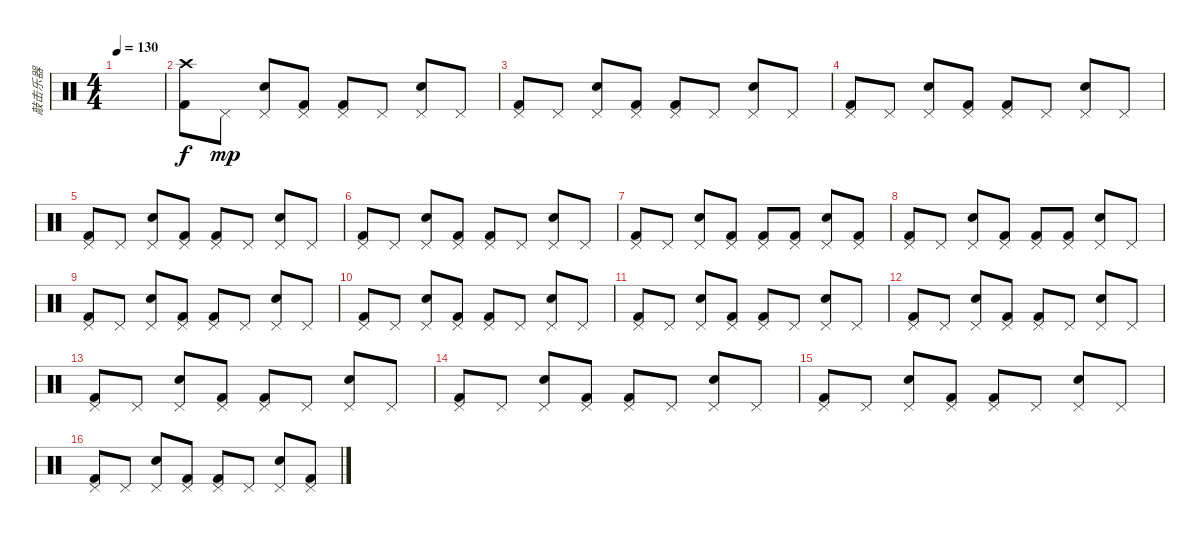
\track ("敲击乐器" "敲击乐器") {instrument percussion}
\staff {score}
\articulation defaults
\ts (4 4)
\tempo 130
\clef neutral
\ks c
|
("Crash high (hit)" "Kick (hit) 2").8 "Pedal Hi-Hat (hit)".8{dy mp} ("Pedal Hi-Hat (hit)" "Electric Snare (hit)").8 ("Pedal Hi-Hat (hit)" "Kick (hit) 2").8 ("Pedal Hi-Hat (hit)" "Kick (hit) 2").8 "Pedal Hi-Hat (hit)".8 ("Pedal Hi-Hat (hit)" "Electric Snare (hit)").8 "Pedal Hi-Hat (hit)".8 |
("Pedal Hi-Hat (hit)" "Kick (hit) 2").8 "Pedal Hi-Hat (hit)".8 ("Pedal Hi-Hat (hit)" "Electric Snare (hit)").8 ("Pedal Hi-Hat (hit)" "Kick (hit) 2").8 ("Pedal Hi-Hat (hit)" "Kick (hit) 2").8 "Pedal Hi-Hat (hit)".8 ("Pedal Hi-Hat (hit)" "Electric Snare (hit)").8 "Pedal Hi-Hat (hit)".8 |
("Pedal Hi-Hat (hit)" "Kick (hit) 2").8 "Pedal Hi-Hat (hit)".8 ("Pedal Hi-Hat (hit)" "Electric Snare (hit)").8 ("Pedal Hi-Hat (hit)" "Kick (hit) 2").8 ("Pedal Hi-Hat (hit)" "Kick (hit) 2").8 "Pedal Hi-Hat (hit)".8 ("Pedal Hi-Hat (hit)" "Electric Snare (hit)").8 "Pedal Hi-Hat (hit)".8 |
("Pedal Hi-Hat (hit)" "Kick (hit) 2").8 "Pedal Hi-Hat (hit)".8 ("Pedal Hi-Hat (hit)" "Electric Snare (hit)").8 ("Pedal Hi-Hat (hit)" "Kick (hit) 2").8 ("Pedal Hi-Hat (hit)" "Kick (hit) 2").8 "Pedal Hi-Hat (hit)".8 ("Pedal Hi-Hat (hit)" "Electric Snare (hit)").8 "Pedal Hi-Hat (hit)".8 |
("Pedal Hi-Hat (hit)" "Kick (hit) 2").8 "Pedal Hi-Hat (hit)".8 ("Pedal Hi-Hat (hit)" "Electric Snare (hit)").8 ("Pedal Hi-Hat (hit)" "Kick (hit) 2").8 ("Pedal Hi-Hat (hit)" "Kick (hit) 2").8 "Pedal Hi-Hat (hit)".8 ("Pedal Hi-Hat (hit)" "Electric Snare (hit)").8 "Pedal Hi-Hat (hit)".8 |
("Pedal Hi-Hat (hit)" "Kick (hit) 2").8 "Pedal Hi-Hat (hit)".8 ("Pedal Hi-Hat (hit)" "Electric Snare (hit)").8 ("Pedal Hi-Hat (hit)" "Kick (hit) 2").8 ("Pedal Hi-Hat (hit)" "Kick (hit) 2").8 ("Pedal Hi-Hat (hit)" "Kick (hit) 2").8 ("Pedal Hi-Hat (hit)" "Electric Snare (hit)").8 ("Pedal Hi-Hat (hit)" "Kick (hit) 2").8 |
("Pedal Hi-Hat (hit)" "Kick (hit) 2").8 "Pedal Hi-Hat (hit)".8 ("Pedal Hi-Hat (hit)" "Electric Snare (hit)").8 ("Pedal Hi-Hat (hit)" "Kick (hit) 2").8 ("Pedal Hi-Hat (hit)" "Kick (hit) 2").8 ("Pedal Hi-Hat (hit)" "Kick (hit) 2").8 ("Pedal Hi-Hat (hit)" "Electric Snare (hit)").8 "Pedal Hi-Hat (hit)".8 |
("Pedal Hi-Hat (hit)" "Kick (hit) 2").8 "Pedal Hi-Hat (hit)".8 ("Pedal Hi-Hat (hit)" "Electric Snare (hit)").8 ("Pedal Hi-Hat (hit)" "Kick (hit) 2").8 ("Pedal Hi-Hat (hit)" "Kick (hit) 2").8 "Pedal Hi-Hat (hit)".8 ("Pedal Hi-Hat (hit)" "Electric Snare (hit)").8 "Pedal Hi-Hat (hit)".8 |
("Pedal Hi-Hat (hit)" "Kick (hit) 2").8 "Pedal Hi-Hat (hit)".8 ("Pedal Hi-Hat (hit)" "Electric Snare (hit)").8 ("Pedal Hi-Hat (hit)" "Kick (hit) 2").8 ("Pedal Hi-Hat (hit)" "Kick (hit) 2").8 "Pedal Hi-Hat (hit)".8 ("Pedal Hi-Hat (hit)" "Electric Snare (hit)").8 "Pedal Hi-Hat (hit)".8 |
("Pedal Hi-Hat (hit)" "Kick (hit) 2").8 "Pedal Hi-Hat (hit)".8 ("Pedal Hi-Hat (hit)" "Electric Snare (hit)").8 ("Pedal Hi-Hat (hit)" "Kick (hit) 2").8 ("Pedal Hi-Hat (hit)" "Kick (hit) 2").8 "Pedal Hi-Hat (hit)".8 ("Pedal Hi-Hat (hit)" "Electric Snare (hit)").8 "Pedal Hi-Hat (hit)".8 |
("Pedal Hi-Hat (hit)" "Kick (hit) 2").8 "Pedal Hi-Hat (hit)".8 ("Pedal Hi-Hat (hit)" "Electric Snare (hit)").8 ("Pedal Hi-Hat (hit)" "Kick (hit) 2").8 ("Pedal Hi-Hat (hit)" "Kick (hit) 2").8 "Pedal Hi-Hat (hit)".8 ("Pedal Hi-Hat (hit)" "Electric Snare (hit)").8 "Pedal Hi-Hat (hit)".8 |
("Pedal Hi-Hat (hit)" "Kick (hit) 2").8 "Pedal Hi-Hat (hit)".8 ("Pedal Hi-Hat (hit)" "Electric Snare (hit)").8 ("Pedal Hi-Hat (hit)" "Kick (hit) 2").8 ("Pedal Hi-Hat (hit)" "Kick (hit) 2").8 "Pedal Hi-Hat (hit)".8 ("Pedal Hi-Hat (hit)" "Electric Snare (hit)").8 "Pedal Hi-Hat (hit)".8 |
("Pedal Hi-Hat (hit)" "Kick (hit) 2").8 "Pedal Hi-Hat (hit)".8 ("Pedal Hi-Hat (hit)" "Electric Snare (hit)").8 ("Pedal Hi-Hat (hit)" "Kick (hit) 2").8 ("Pedal Hi-Hat (hit)" "Kick (hit) 2").8 "Pedal Hi-Hat (hit)".8 ("Pedal Hi-Hat (hit)" "Electric Snare (hit)").8 "Pedal Hi-Hat (hit)".8 |
("Pedal Hi-Hat (hit)" "Kick (hit) 2").8 "Pedal Hi-Hat (hit)".8 ("Pedal Hi-Hat (hit)" "Electric Snare (hit)").8 ("Pedal Hi-Hat (hit)" "Kick (hit) 2").8 ("Pedal Hi-Hat (hit)" "Kick (hit) 2").8 "Pedal Hi-Hat (hit)".8 ("Pedal Hi-Hat (hit)" "Electric Snare (hit)").8 "Pedal Hi-Hat (hit)".8 |
("Pedal Hi-Hat (hit)" "Kick (hit) 2").8 "Pedal Hi-Hat (hit)".8 ("Pedal Hi-Hat (hit)" "Electric Snare (hit)").8 ("Pedal Hi-Hat (hit)" "Kick (hit) 2").8 ("Pedal Hi-Hat (hit)" "Kick (hit) 2").8 "Pedal Hi-Hat (hit)".8 ("Pedal Hi-Hat (hit)" "Electric Snare (hit)").8 ("Pedal Hi-Hat (hit)" "Kick (hit) 2").8
